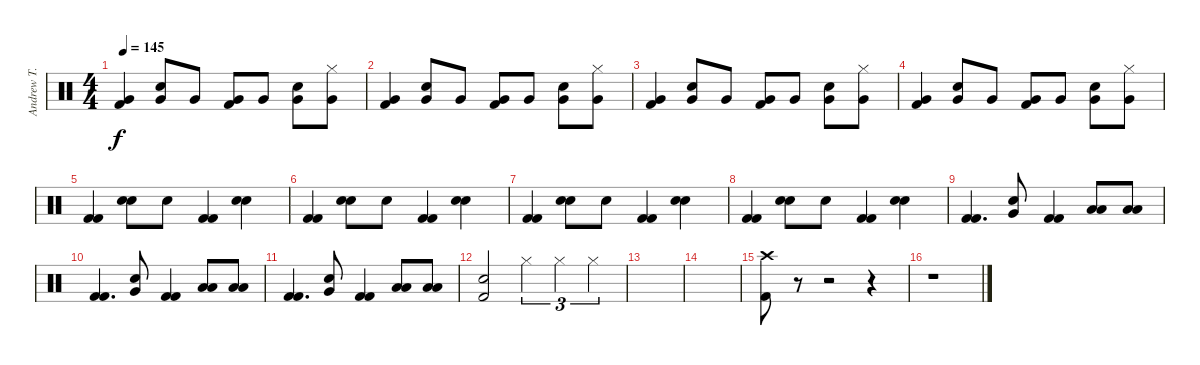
\track ("Andrew T." "Andrew T.") {instrument percussion}
\staff {score}
\articulation defaults
\ts (4 4)
\tempo 145
\clef neutral
\ks c
("Very Low Tom (hit)" "Kick (hit) 2").4{dy f} ("Electric Snare (hit)" "Very Low Tom (hit)").8 "Very Low Tom (hit)".8 ("Kick (hit) 2" "Very Low Tom (hit)").8 "Very Low Tom (hit)".8 ("Electric Snare (hit)" "Very Low Tom (hit)").8 ("Hi-Hat (closed)" "Very Low Tom (hit)").8 |
("Very Low Tom (hit)" "Kick (hit) 2").4 ("Electric Snare (hit)" "Very Low Tom (hit)").8 "Very Low Tom (hit)".8 ("Kick (hit) 2" "Very Low Tom (hit)").8 "Very Low Tom (hit)".8 ("Electric Snare (hit)" "Very Low Tom (hit)").8 ("Hi-Hat (closed)" "Very Low Tom (hit)").8 |
("Very Low Tom (hit)" "Kick (hit) 2").4 ("Electric Snare (hit)" "Very Low Tom (hit)").8 "Very Low Tom (hit)".8 ("Kick (hit) 2" "Very Low Tom (hit)").8 "Very Low Tom (hit)".8 ("Electric Snare (hit)" "Very Low Tom (hit)").8 ("Hi-Hat (closed)" "Very Low Tom (hit)").8 |
("Very Low Tom (hit)" "Kick (hit) 2").4 ("Electric Snare (hit)" "Very Low Tom (hit)").8 "Very Low Tom (hit)".8 ("Kick (hit) 2" "Very Low Tom (hit)").8 "Very Low Tom (hit)".8 ("Electric Snare (hit)" "Very Low Tom (hit)").8 ("Hi-Hat (closed)" "Very Low Tom (hit)").8 |
("Kick (hit) 2" "Kick (hit) 2").4 ("Electric Snare (hit)" "Electric Snare (hit)").8 "Electric Snare (hit)".8 ("Kick (hit) 2" "Kick (hit) 2").4 ("Electric Snare (hit)" "Electric Snare (hit)").4 |
("Kick (hit) 2" "Kick (hit) 2").4 ("Electric Snare (hit)" "Electric Snare (hit)").8 "Electric Snare (hit)".8 ("Kick (hit) 2" "Kick (hit) 2").4 ("Electric Snare (hit)" "Electric Snare (hit)").4 |
("Kick (hit) 2" "Kick (hit) 2").4 ("Electric Snare (hit)" "Electric Snare (hit)").8 "Electric Snare (hit)".8 ("Kick (hit) 2" "Kick (hit) 2").4 ("Electric Snare (hit)" "Electric Snare (hit)").4 |
("Kick (hit) 2" "Kick (hit) 2").4 ("Electric Snare (hit)" "Electric Snare (hit)").8 "Electric Snare (hit)".8 ("Kick (hit) 2" "Kick (hit) 2").4 ("Electric Snare (hit)" "Electric Snare (hit)").4 |
("Kick (hit) 2" "Kick (hit) 2").4{d} ("Electric Snare (hit)" "Very Low Tom (hit)").8 ("Kick (hit) 2" "Kick (hit) 2").4 ("Low Tom (hit)" "Low Tom (hit)").8 ("Low Tom (hit)" "Low Tom (hit)").8 |
("Kick (hit) 2" "Kick (hit) 2").4{d} ("Electric Snare (hit)" "Very Low Tom (hit)").8 ("Kick (hit) 2" "Kick (hit) 2").4 ("Low Tom (hit)" "Low Tom (hit)").8 ("Low Tom (hit)" "Low Tom (hit)").8 |
("Kick (hit) 2" "Kick (hit) 2").4{d} ("Electric Snare (hit)" "Very Low Tom (hit)").8 ("Kick (hit) 2" "Kick (hit) 2").4 ("Low Tom (hit)" "Low Tom (hit)").8 ("Low Tom (hit)" "Low Tom (hit)").8 |
("Electric Snare (hit)" "Kick (hit) 2").2 "Hi-Hat (closed)".4{tu (3 2)} "Hi-Hat (closed)".4{tu (3 2)} "Hi-Hat (closed)".4{tu (3 2)} |
|
|
("Crash high (hit)" "Kick (hit) 2").8 r.8 r.2 r.4 |
r.1
